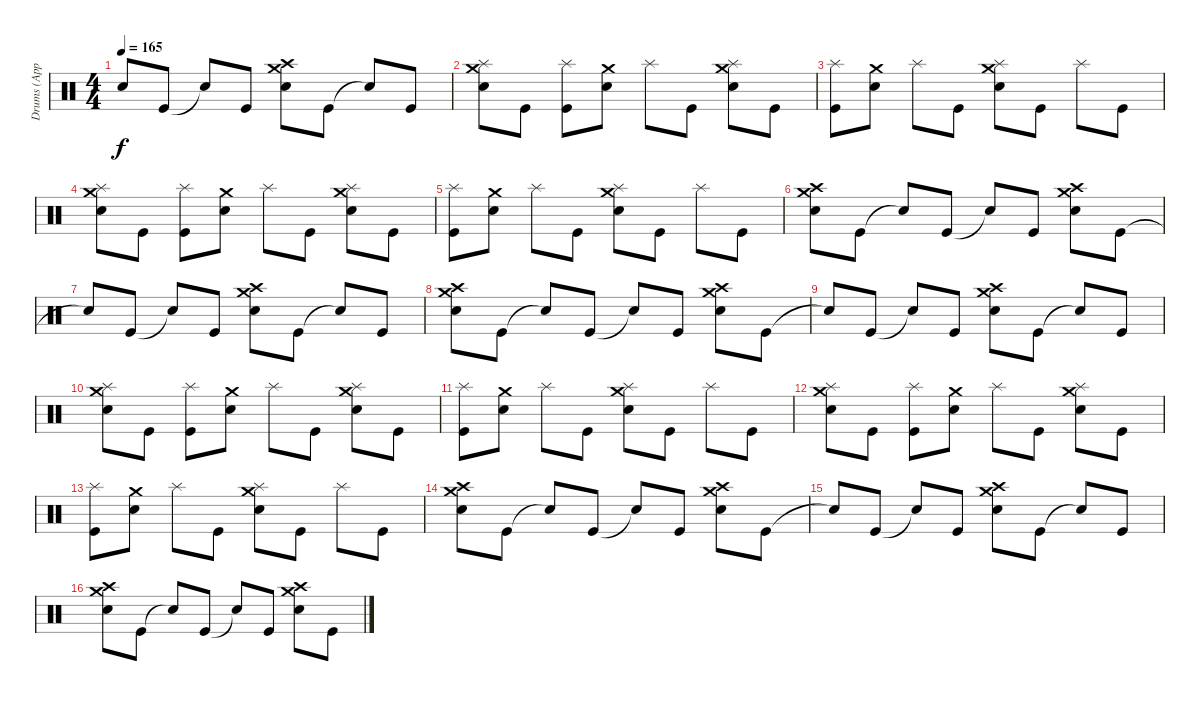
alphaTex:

\track ("Drums (Approx.)" "Drums (App") {instrument percussion}
\staff {score}
\articulation defaults
\ts (4 4)
\tempo 165
\clef neutral
\ks c "Snare (hit)"{t}.8{dy f} "Kick (hit)".8 "Snare (hit)"{t}.8 "Kick (hit)".8
("Crash medium (hit)" "Crash high (hit)" "Electric Snare (hit)").8 "Kick (hit)".8 "Snare (hit)"{t}.8 "Kick (hit)".8 |
("Crash medium (hit)" "Splash (hit)" "Electric Snare (hit)").8 "Kick (hit)".8 ("Splash (hit)" "Kick (hit)").8 ("Crash medium (hit)" "Electric Snare (hit)").8 "Splash (hit)".8 "Kick (hit)".8 ("Crash medium (hit)" "Splash (hit)" "Electric Snare (hit)").8 "Kick (hit)".8 |
("Splash (hit)" "Kick (hit)").8 ("Crash medium (hit)" "Electric Snare (hit)").8 "Splash (hit)".8 "Kick (hit)".8 ("Crash medium (hit)" "Splash (hit)" "Electric Snare (hit)").8 "Kick (hit)".8 "Splash (hit)".8 "Kick (hit)".8 |
("Crash medium (hit)" "Splash (hit)" "Electric Snare (hit)").8 "Kick (hit)".8 ("Splash (hit)" "Kick (hit)").8 ("Crash medium (hit)" "Electric Snare (hit)").8 "Splash (hit)".8 "Kick (hit)".8 ("Crash medium (hit)" "Splash (hit)" "Electric Snare (hit)").8 "Kick (hit)".8 |
("Splash (hit)" "Kick (hit)").8 ("Crash medium (hit)" "Electric Snare (hit)").8 "Splash (hit)".8 "Kick (hit)".8 ("Crash medium (hit)" "Splash (hit)" "Electric Snare (hit)").8 "Kick (hit)".8 "Splash (hit)".8 "Kick (hit)".8 |
("Crash medium (hit)" "Crash high (hit)" "Electric Snare (hit)").8 "Kick (hit)".8 "Snare (hit)"{t}.8 "Kick (hit)".8 "Snare (hit)"{t}.8 "Kick (hit)".8 ("Crash medium (hit)" "Crash high (hit)" "Electric Snare (hit)").8 "Kick (hit)".8 |
"Snare (hit)"{t}.8 "Kick (hit)".8 "Snare (hit)"{t}.8 "Kick (hit)".8 ("Crash medium (hit)" "Crash high (hit)" "Electric Snare (hit)").8 "Kick (hit)".8 "Snare (hit)"{t}.8 "Kick (hit)".8 |
("Crash medium (hit)" "Crash high (hit)" "Electric Snare (hit)").8 "Kick (hit)".8 "Snare (hit)"{t}.8 "Kick (hit)".8 "Snare (hit)"{t}.8 "Kick (hit)".8 ("Crash medium (hit)" "Crash high (hit)" "Electric Snare (hit)").8 "Kick (hit)".8 |
"Snare (hit)"{t}.8 "Kick (hit)".8 "Snare (hit)"{t}.8 "Kick (hit)".8 ("Crash medium (hit)" "Crash high (hit)" "Electric Snare (hit)").8 "Kick (hit)".8 "Snare (hit)"{t}.8 "Kick (hit)".8 |
("Crash medium (hit)" "Splash (hit)" "Electric Snare (hit)").8 "Kick (hit)".8 ("Splash (hit)" "Kick (hit)").8 ("Crash medium (hit)" "Electric Snare (hit)").8 "Splash (hit)".8 "Kick (hit)".8 ("Crash medium (hit)" "Splash (hit)" "Electric Snare (hit)").8 "Kick (hit)".8 |
("Splash (hit)" "Kick (hit)").8 ("Crash medium (hit)" "Electric Snare (hit)").8 "Splash (hit)".8 "Kick (hit)".8 ("Crash medium (hit)" "Splash (hit)" "Electric Snare (hit)").8 "Kick (hit)".8 "Splash (hit)".8 "Kick (hit)".8 |
("Crash medium (hit)" "Splash (hit)" "Electric Snare (hit)").8 "Kick (hit)".8 ("Splash (hit)" "Kick (hit)").8 ("Crash medium (hit)" "Electric Snare (hit)").8 "Splash (hit)".8 "Kick (hit)".8 ("Crash medium (hit)" "Splash (hit)" "Electric Snare (hit)").8 "Kick (hit)".8 |
("Splash (hit)" "Kick (hit)").8 ("Crash medium (hit)" "Electric Snare (hit)").8 "Splash (hit)".8 "Kick (hit)".8 ("Crash medium (hit)" "Splash (hit)" "Electric Snare (hit)").8 "Kick (hit)".8 "Splash (hit)".8 "Kick (hit)".8 |
("Crash medium (hit)" "Crash high (hit)" "Electric Snare (hit)").8 "Kick (hit)".8 "Snare (hit)"{t}.8 "Kick (hit)".8 "Snare (hit)"{t}.8 "Kick (hit)".8 ("Crash medium (hit)" "Crash high (hit)" "Electric Snare (hit)").8 "Kick (hit)".8 |
"Snare (hit)"{t}.8 "Kick (hit)".8 "Snare (hit)"{t}.8 "Kick (hit)".8 ("Crash medium (hit)" "Crash high (hit)" "Electric Snare (hit)").8 "Kick (hit)".8 "Snare (hit)"{t}.8 "Kick (hit)".8 |
("Crash medium (hit)" "Crash high (hit)" "Electric Snare (hit)").8 "Kick (hit)".8 "Snare (hit)"{t}.8 "Kick (hit)".8 "Snare (hit)"{t}.8 "Kick (hit)".8 ("Crash medium (hit)" "Crash high (hit)" "Electric Snare (hit)").8 "Kick (hit)".8
